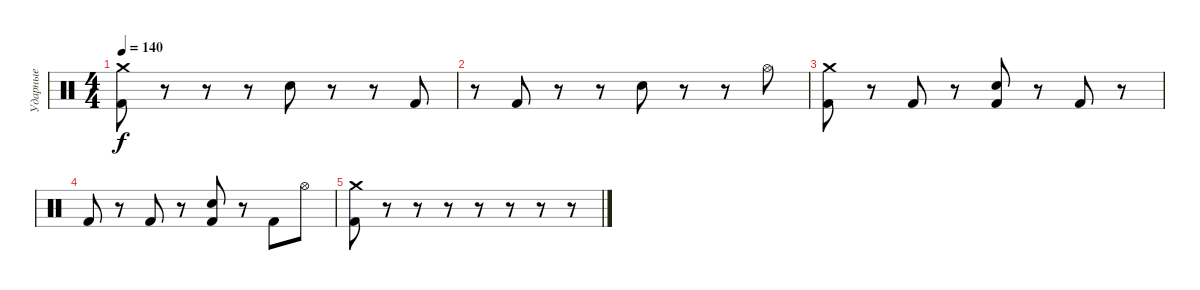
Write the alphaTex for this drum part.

\track ("Ударные" "Ударные") {instrument percussion}
\staff {score}
\articulation defaults
\ts (4 4)
\tempo 140
\clef neutral
\ks c
("Crash medium (hit)" "Kick (hit) 2").8{dy f} r.8 r.8 r.8 "Snare (hit) 2".8 r.8 r.8 "Kick (hit) 2".8 |
r.8 "Kick (hit) 2".8 r.8 r.8 "Snare (hit) 2".8 r.8 r.8 "Hi-Hat (open)".8 |
("Crash medium (hit)" "Kick (hit) 2").8 r.8 "Kick (hit) 2".8 r.8 ("Snare (hit) 2" "Kick (hit) 2").8 r.8 "Kick (hit) 2".8 r.8 |
"Kick (hit) 2".8 r.8 "Kick (hit) 2".8 r.8 ("Snare (hit) 2" "Kick (hit) 2").8 r.8 "Kick (hit) 2".8 "Hi-Hat (open)".8 |
("Crash medium (hit)" "Kick (hit) 2").8 r.8 r.8 r.8 r.8 r.8 r.8 r.8
